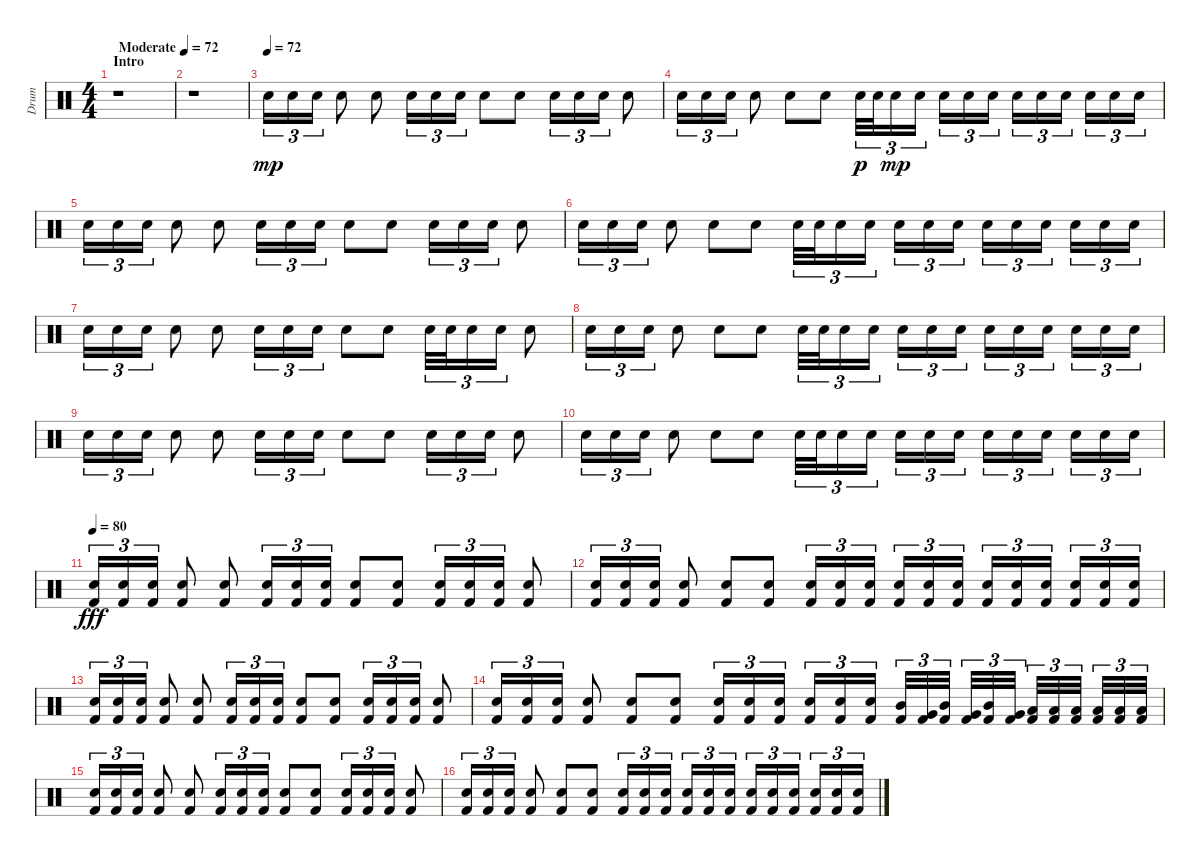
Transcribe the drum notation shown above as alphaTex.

\track ("Drum" "Drum") {instrument percussion}
\staff {score}
\articulation defaults
\ts (4 4)
\section ("" "Intro")
\tempo (72 "Moderate")
\tempo 124
\tempo (72 "Moderate")
\clef neutral
\ks c
r.1{dy mp} |
r.1 |
\tempo (72)
"Snare (hit) 2".16{tu (3 2)} "Snare (hit) 2".16{tu (3 2)} "Snare (hit) 2".16{tu (3 2)} "Snare (hit) 2".8 "Snare (hit) 2".8 "Snare (hit) 2".16{tu (3 2)} "Snare (hit) 2".16{tu (3 2)} "Snare (hit) 2".16{tu (3 2)} "Snare (hit) 2".8 "Snare (hit) 2".8 "Snare (hit) 2".16{tu (3 2)} "Snare (hit) 2".16{tu (3 2)} "Snare (hit) 2".16{tu (3 2)} "Snare (hit) 2".8 |
"Snare (hit) 2".16{tu (3 2)} "Snare (hit) 2".16{tu (3 2)} "Snare (hit) 2".16{tu (3 2)} "Snare (hit) 2".8 "Snare (hit) 2".8 "Snare (hit) 2".8 "Snare (hit) 2".32{tu (3 2) dy p} "Snare (hit) 2".32{tu (3 2)} "Snare (hit) 2".16{tu (3 2) dy mp} "Snare (hit) 2".16{tu (3 2) beam splitsecondary} "Snare (hit) 2".16{tu (3 2)} "Snare (hit) 2".16{tu (3 2)} "Snare (hit) 2".16{tu (3 2)} "Snare (hit) 2".16{tu (3 2)} "Snare (hit) 2".16{tu (3 2)} "Snare (hit) 2".16{tu (3 2) beam splitsecondary} "Snare (hit) 2".16{tu (3 2)} "Snare (hit) 2".16{tu (3 2)} "Snare (hit) 2".16{tu (3 2)} |
"Snare (hit) 2".16{tu (3 2)} "Snare (hit) 2".16{tu (3 2)} "Snare (hit) 2".16{tu (3 2)} "Snare (hit) 2".8 "Snare (hit) 2".8 "Snare (hit) 2".16{tu (3 2)} "Snare (hit) 2".16{tu (3 2)} "Snare (hit) 2".16{tu (3 2)} "Snare (hit) 2".8 "Snare (hit) 2".8 "Snare (hit) 2".16{tu (3 2)} "Snare (hit) 2".16{tu (3 2)} "Snare (hit) 2".16{tu (3 2)} "Snare (hit) 2".8 |
"Snare (hit) 2".16{tu (3 2)} "Snare (hit) 2".16{tu (3 2)} "Snare (hit) 2".16{tu (3 2)} "Snare (hit) 2".8 "Snare (hit) 2".8 "Snare (hit) 2".8 "Snare (hit) 2".32{tu (3 2)} "Snare (hit) 2".32{tu (3 2)} "Snare (hit) 2".16{tu (3 2)} "Snare (hit) 2".16{tu (3 2) beam splitsecondary} "Snare (hit) 2".16{tu (3 2)} "Snare (hit) 2".16{tu (3 2)} "Snare (hit) 2".16{tu (3 2)} "Snare (hit) 2".16{tu (3 2)} "Snare (hit) 2".16{tu (3 2)} "Snare (hit) 2".16{tu (3 2) beam splitsecondary} "Snare (hit) 2".16{tu (3 2)} "Snare (hit) 2".16{tu (3 2)} "Snare (hit) 2".16{tu (3 2)} |
"Snare (hit) 2".16{tu (3 2)} "Snare (hit) 2".16{tu (3 2)} "Snare (hit) 2".16{tu (3 2)} "Snare (hit) 2".8 "Snare (hit) 2".8 "Snare (hit) 2".16{tu (3 2)} "Snare (hit) 2".16{tu (3 2)} "Snare (hit) 2".16{tu (3 2)} "Snare (hit) 2".8 "Snare (hit) 2".8 "Snare (hit) 2".32{tu (3 2)} "Snare (hit) 2".32{tu (3 2)} "Snare (hit) 2".16{tu (3 2)} "Snare (hit) 2".16{tu (3 2)} "Snare (hit) 2".8 |
"Snare (hit) 2".16{tu (3 2)} "Snare (hit) 2".16{tu (3 2)} "Snare (hit) 2".16{tu (3 2)} "Snare (hit) 2".8 "Snare (hit) 2".8 "Snare (hit) 2".8 "Snare (hit) 2".32{tu (3 2)} "Snare (hit) 2".32{tu (3 2)} "Snare (hit) 2".16{tu (3 2)} "Snare (hit) 2".16{tu (3 2) beam splitsecondary} "Snare (hit) 2".16{tu (3 2)} "Snare (hit) 2".16{tu (3 2)} "Snare (hit) 2".16{tu (3 2)} "Snare (hit) 2".16{tu (3 2)} "Snare (hit) 2".16{tu (3 2)} "Snare (hit) 2".16{tu (3 2) beam splitsecondary} "Snare (hit) 2".16{tu (3 2)} "Snare (hit) 2".16{tu (3 2)} "Snare (hit) 2".16{tu (3 2)} |
"Snare (hit) 2".16{tu (3 2)} "Snare (hit) 2".16{tu (3 2)} "Snare (hit) 2".16{tu (3 2)} "Snare (hit) 2".8 "Snare (hit) 2".8 "Snare (hit) 2".16{tu (3 2)} "Snare (hit) 2".16{tu (3 2)} "Snare (hit) 2".16{tu (3 2)} "Snare (hit) 2".8 "Snare (hit) 2".8 "Snare (hit) 2".16{tu (3 2)} "Snare (hit) 2".16{tu (3 2)} "Snare (hit) 2".16{tu (3 2)} "Snare (hit) 2".8 |
"Snare (hit) 2".16{tu (3 2)} "Snare (hit) 2".16{tu (3 2)} "Snare (hit) 2".16{tu (3 2)} "Snare (hit) 2".8 "Snare (hit) 2".8 "Snare (hit) 2".8 "Snare (hit) 2".32{tu (3 2)} "Snare (hit) 2".32{tu (3 2)} "Snare (hit) 2".16{tu (3 2)} "Snare (hit) 2".16{tu (3 2) beam splitsecondary} "Snare (hit) 2".16{tu (3 2)} "Snare (hit) 2".16{tu (3 2)} "Snare (hit) 2".16{tu (3 2)} "Snare (hit) 2".16{tu (3 2)} "Snare (hit) 2".16{tu (3 2)} "Snare (hit) 2".16{tu (3 2) beam splitsecondary} "Snare (hit) 2".16{tu (3 2)} "Snare (hit) 2".16{tu (3 2)} "Snare (hit) 2".16{tu (3 2)} |
\tempo 80
("Snare (hit) 2" "Kick (hit) 2").16{tu (3 2) dy fff} ("Snare (hit) 2" "Kick (hit) 2").16{tu (3 2)} ("Snare (hit) 2" "Kick (hit) 2").16{tu (3 2)} ("Snare (hit) 2" "Kick (hit) 2").8 ("Snare (hit) 2" "Kick (hit) 2").8 ("Snare (hit) 2" "Kick (hit) 2").16{tu (3 2)} ("Snare (hit) 2" "Kick (hit) 2").16{tu (3 2)} ("Snare (hit) 2" "Kick (hit) 2").16{tu (3 2)} ("Snare (hit) 2" "Kick (hit) 2").8 ("Snare (hit) 2" "Kick (hit) 2").8 ("Snare (hit) 2" "Kick (hit) 2").16{tu (3 2)} ("Snare (hit) 2" "Kick (hit) 2").16{tu (3 2)} ("Snare (hit) 2" "Kick (hit) 2").16{tu (3 2)} ("Snare (hit) 2" "Kick (hit) 2").8 |
("Snare (hit) 2" "Kick (hit) 2").16{tu (3 2)} ("Snare (hit) 2" "Kick (hit) 2").16{tu (3 2)} ("Snare (hit) 2" "Kick (hit) 2").16{tu (3 2)} ("Snare (hit) 2" "Kick (hit) 2").8 ("Snare (hit) 2" "Kick (hit) 2").8 ("Snare (hit) 2" "Kick (hit) 2").8 ("Snare (hit) 2" "Kick (hit) 2").16{tu (3 2)} ("Snare (hit) 2" "Kick (hit) 2").16{tu (3 2)} ("Snare (hit) 2" "Kick (hit) 2").16{tu (3 2) beam splitsecondary} ("Snare (hit) 2" "Kick (hit) 2").16{tu (3 2)} ("Snare (hit) 2" "Kick (hit) 2").16{tu (3 2)} ("Snare (hit) 2" "Kick (hit) 2").16{tu (3 2)} ("Snare (hit) 2" "Kick (hit) 2").16{tu (3 2)} ("Snare (hit) 2" "Kick (hit) 2").16{tu (3 2)} ("Snare (hit) 2" "Kick (hit) 2").16{tu (3 2) beam splitsecondary} ("Snare (hit) 2" "Kick (hit) 2").16{tu (3 2)} ("Snare (hit) 2" "Kick (hit) 2").16{tu (3 2)} ("Snare (hit) 2" "Kick (hit) 2").16{tu (3 2)} |
("Snare (hit) 2" "Kick (hit) 2").16{tu (3 2)} ("Snare (hit) 2" "Kick (hit) 2").16{tu (3 2)} ("Snare (hit) 2" "Kick (hit) 2").16{tu (3 2)} ("Snare (hit) 2" "Kick (hit) 2").8 ("Snare (hit) 2" "Kick (hit) 2").8 ("Snare (hit) 2" "Kick (hit) 2").16{tu (3 2)} ("Snare (hit) 2" "Kick (hit) 2").16{tu (3 2)} ("Snare (hit) 2" "Kick (hit) 2").16{tu (3 2)} ("Snare (hit) 2" "Kick (hit) 2").8 ("Snare (hit) 2" "Kick (hit) 2").8 ("Snare (hit) 2" "Kick (hit) 2").16{tu (3 2)} ("Snare (hit) 2" "Kick (hit) 2").16{tu (3 2)} ("Snare (hit) 2" "Kick (hit) 2").16{tu (3 2)} ("Snare (hit) 2" "Kick (hit) 2").8 |
("Snare (hit) 2" "Kick (hit) 2").16{tu (3 2)} ("Snare (hit) 2" "Kick (hit) 2").16{tu (3 2)} ("Snare (hit) 2" "Kick (hit) 2").16{tu (3 2)} ("Snare (hit) 2" "Kick (hit) 2").8 ("Snare (hit) 2" "Kick (hit) 2").8 ("Snare (hit) 2" "Kick (hit) 2").8 ("Snare (hit) 2" "Kick (hit) 2").16{tu (3 2)} ("Snare (hit) 2" "Kick (hit) 2").16{tu (3 2)} ("Snare (hit) 2" "Kick (hit) 2").16{tu (3 2) beam splitsecondary} ("Snare (hit) 2" "Kick (hit) 2").16{tu (3 2)} ("Snare (hit) 2" "Kick (hit) 2").16{tu (3 2)} ("Snare (hit) 2" "Kick (hit) 2").16{tu (3 2)} ("Mid Tom (hit)" "Kick (hit) 2").32{tu (3 2)} ("Very Low Tom (hit)" "Kick (hit) 2").32{tu (3 2)} ("Mid Tom (hit)" "Kick (hit) 2").32{tu (3 2) beam splitsecondary} ("Very Low Tom (hit)" "Kick (hit) 2").32{tu (3 2)} ("Mid Tom (hit)" "Kick (hit) 2").32{tu (3 2)} ("Very Low Tom (hit)" "Kick (hit) 2").32{tu (3 2) beam splitsecondary} ("Low Tom (hit)" "Kick (hit) 2").32{tu (3 2)} ("Low Floor Tom (hit)" "Kick (hit) 2").32{tu (3 2)} ("Low Tom (hit)" "Kick (hit) 2").32{tu (3 2) beam splitsecondary} ("Low Floor Tom (hit)" "Kick (hit) 2").32{tu (3 2)} ("Low Tom (hit)" "Kick (hit) 2").32{tu (3 2)} ("Low Floor Tom (hit)" "Kick (hit) 2").32{tu (3 2)} |
("Snare (hit) 2" "Kick (hit) 2").16{tu (3 2)} ("Snare (hit) 2" "Kick (hit) 2").16{tu (3 2)} ("Snare (hit) 2" "Kick (hit) 2").16{tu (3 2)} ("Snare (hit) 2" "Kick (hit) 2").8 ("Snare (hit) 2" "Kick (hit) 2").8 ("Snare (hit) 2" "Kick (hit) 2").16{tu (3 2)} ("Snare (hit) 2" "Kick (hit) 2").16{tu (3 2)} ("Snare (hit) 2" "Kick (hit) 2").16{tu (3 2)} ("Snare (hit) 2" "Kick (hit) 2").8 ("Snare (hit) 2" "Kick (hit) 2").8 ("Snare (hit) 2" "Kick (hit) 2").16{tu (3 2)} ("Snare (hit) 2" "Kick (hit) 2").16{tu (3 2)} ("Snare (hit) 2" "Kick (hit) 2").16{tu (3 2)} ("Snare (hit) 2" "Kick (hit) 2").8 |
("Snare (hit) 2" "Kick (hit) 2").16{tu (3 2)} ("Snare (hit) 2" "Kick (hit) 2").16{tu (3 2)} ("Snare (hit) 2" "Kick (hit) 2").16{tu (3 2)} ("Snare (hit) 2" "Kick (hit) 2").8 ("Snare (hit) 2" "Kick (hit) 2").8 ("Snare (hit) 2" "Kick (hit) 2").8 ("Snare (hit) 2" "Kick (hit) 2").16{tu (3 2)} ("Snare (hit) 2" "Kick (hit) 2").16{tu (3 2)} ("Snare (hit) 2" "Kick (hit) 2").16{tu (3 2) beam splitsecondary} ("Snare (hit) 2" "Kick (hit) 2").16{tu (3 2)} ("Snare (hit) 2" "Kick (hit) 2").16{tu (3 2)} ("Snare (hit) 2" "Kick (hit) 2").16{tu (3 2)} ("Snare (hit) 2" "Kick (hit) 2").16{tu (3 2)} ("Snare (hit) 2" "Kick (hit) 2").16{tu (3 2)} ("Snare (hit) 2" "Kick (hit) 2").16{tu (3 2) beam splitsecondary} ("Snare (hit) 2" "Kick (hit) 2").16{tu (3 2)} ("Snare (hit) 2" "Kick (hit) 2").16{tu (3 2)} ("Snare (hit) 2" "Kick (hit) 2").16{tu (3 2)}
